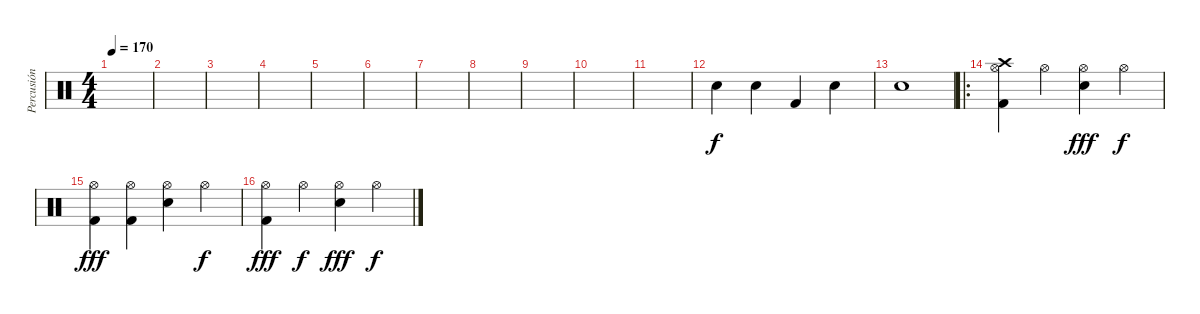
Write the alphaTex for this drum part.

\track ("Percusión" "Percusión") {instrument percussion}
\staff {score}
\articulation defaults
\ts (4 4)
\tempo 170
\clef neutral
\ks c
|
|
|
|
|
|
|
|
|
|
|
"Electric Snare (hit)".4 "Electric Snare (hit)".4 "Kick (hit) 2".4 "Electric Snare (hit)".4 |
"Electric Snare (hit)".1 |
\ro
("Hi-Hat (open)" "Crash high (hit)" "Kick (hit) 2").4 "Hi-Hat (open)".4{dy f} ("Hi-Hat (open)" "Electric Snare (hit)").4{dy fff} "Hi-Hat (open)".4{dy f} |
("Hi-Hat (open)" "Kick (hit) 2").4{dy fff} ("Hi-Hat (open)" "Kick (hit) 2").4 ("Hi-Hat (open)" "Electric Snare (hit)").4 "Hi-Hat (open)".4{dy f} |
("Hi-Hat (open)" "Kick (hit) 2").4{dy fff} "Hi-Hat (open)".4{dy f} ("Hi-Hat (open)" "Electric Snare (hit)").4{dy fff} "Hi-Hat (open)".4{dy f}
